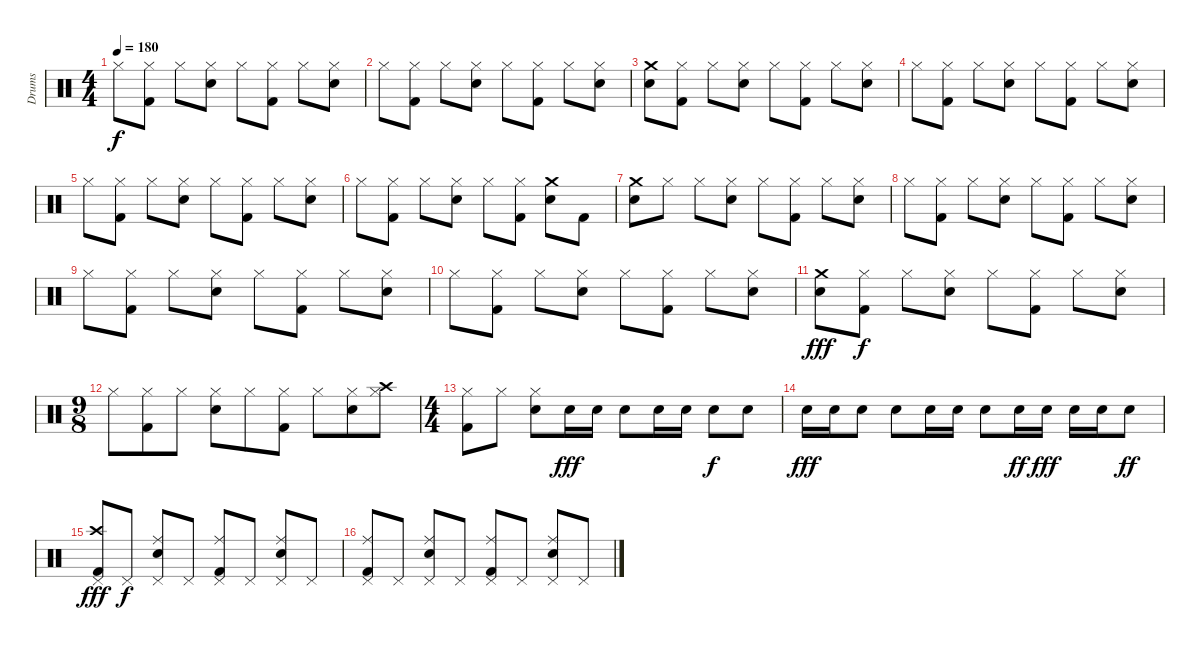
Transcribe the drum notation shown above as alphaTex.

\track ("Drums" "Drums") {instrument percussion}
\staff {score}
\articulation defaults
\ts (4 4)
\tempo 180
\clef neutral
\ks c "Hi-Hat (closed)".8{dy f}
("Hi-Hat (closed)" "Kick (hit) 2").8 "Hi-Hat (closed)".8 ("Hi-Hat (closed)" "Electric Snare (hit)").8 "Hi-Hat (closed)".8 ("Hi-Hat (closed)" "Kick (hit) 2").8 "Hi-Hat (closed)".8 ("Hi-Hat (closed)" "Electric Snare (hit)").8 |
"Hi-Hat (closed)".8 ("Hi-Hat (closed)" "Kick (hit) 2").8 "Hi-Hat (closed)".8 ("Hi-Hat (closed)" "Electric Snare (hit)").8 "Hi-Hat (closed)".8 ("Hi-Hat (closed)" "Kick (hit) 2").8 "Hi-Hat (closed)".8 ("Hi-Hat (closed)" "Electric Snare (hit)").8 |
("Crash medium (hit)" "Electric Snare (hit)").8 ("Hi-Hat (closed)" "Kick (hit) 2").8 "Hi-Hat (closed)".8 ("Hi-Hat (closed)" "Electric Snare (hit)").8 "Hi-Hat (closed)".8 ("Hi-Hat (closed)" "Kick (hit) 2").8 "Hi-Hat (closed)".8 ("Hi-Hat (closed)" "Electric Snare (hit)").8 |
"Hi-Hat (closed)".8 ("Hi-Hat (closed)" "Kick (hit) 2").8 "Hi-Hat (closed)".8 ("Hi-Hat (closed)" "Electric Snare (hit)").8 "Hi-Hat (closed)".8 ("Hi-Hat (closed)" "Kick (hit) 2").8 "Hi-Hat (closed)".8 ("Hi-Hat (closed)" "Electric Snare (hit)").8 |
"Hi-Hat (closed)".8 ("Hi-Hat (closed)" "Kick (hit) 2").8 "Hi-Hat (closed)".8 ("Hi-Hat (closed)" "Electric Snare (hit)").8 "Hi-Hat (closed)".8 ("Hi-Hat (closed)" "Kick (hit) 2").8 "Hi-Hat (closed)".8 ("Hi-Hat (closed)" "Electric Snare (hit)").8 |
"Hi-Hat (closed)".8 ("Hi-Hat (closed)" "Kick (hit) 2").8 "Hi-Hat (closed)".8 ("Hi-Hat (closed)" "Electric Snare (hit)").8 "Hi-Hat (closed)".8 ("Hi-Hat (closed)" "Kick (hit) 2").8 ("Crash medium (hit)" "Snare (hit) 2").8 "Kick (hit) 2".8 |
("Crash medium (hit)" "Snare (hit) 2").8 "Hi-Hat (closed)".8 "Hi-Hat (closed)".8 ("Hi-Hat (closed)" "Electric Snare (hit)").8 "Hi-Hat (closed)".8 ("Hi-Hat (closed)" "Kick (hit) 2").8 "Hi-Hat (closed)".8 ("Hi-Hat (closed)" "Electric Snare (hit)").8 |
"Hi-Hat (closed)".8 ("Hi-Hat (closed)" "Kick (hit) 2").8 "Hi-Hat (closed)".8 ("Hi-Hat (closed)" "Electric Snare (hit)").8 "Hi-Hat (closed)".8 ("Hi-Hat (closed)" "Kick (hit) 2").8 "Hi-Hat (closed)".8 ("Hi-Hat (closed)" "Electric Snare (hit)").8 |
"Hi-Hat (closed)".8 ("Hi-Hat (closed)" "Kick (hit) 2").8 "Hi-Hat (closed)".8 ("Hi-Hat (closed)" "Electric Snare (hit)").8 "Hi-Hat (closed)".8 ("Hi-Hat (closed)" "Kick (hit) 2").8 "Hi-Hat (closed)".8 ("Hi-Hat (closed)" "Electric Snare (hit)").8 |
"Hi-Hat (closed)".8 ("Hi-Hat (closed)" "Kick (hit) 2").8 "Hi-Hat (closed)".8 ("Hi-Hat (closed)" "Electric Snare (hit)").8 "Hi-Hat (closed)".8 ("Hi-Hat (closed)" "Kick (hit) 2").8 "Hi-Hat (closed)".8 ("Hi-Hat (closed)" "Electric Snare (hit)").8 |
("Crash medium (hit)" "Electric Snare (hit)").8{dy fff} ("Hi-Hat (closed)" "Kick (hit) 2").8{dy f} "Hi-Hat (closed)".8 ("Hi-Hat (closed)" "Electric Snare (hit)").8 "Hi-Hat (closed)".8 ("Hi-Hat (closed)" "Kick (hit) 2").8 "Hi-Hat (closed)".8 ("Hi-Hat (closed)" "Electric Snare (hit)").8 |
\ts (9 8)
"Hi-Hat (closed)".8 ("Hi-Hat (closed)" "Kick (hit) 2").8 "Hi-Hat (closed)".8 ("Hi-Hat (closed)" "Electric Snare (hit)").8 "Hi-Hat (closed)".8 ("Hi-Hat (closed)" "Kick (hit) 2").8 "Hi-Hat (closed)".8 ("Hi-Hat (closed)" "Electric Snare (hit)").8 ("Crash high (hit)" "Hi-Hat (closed)").8 |
\ts (4 4)
("Hi-Hat (closed)" "Kick (hit) 2").8 "Hi-Hat (closed)".8 ("Hi-Hat (closed)" "Electric Snare (hit)").8 "Electric Snare (hit)".16{dy fff} "Electric Snare (hit)".16 "Electric Snare (hit)".8 "Electric Snare (hit)".16 "Electric Snare (hit)".16 "Electric Snare (hit)".8{dy f} "Electric Snare (hit)".8 |
"Electric Snare (hit)".16{dy fff} "Electric Snare (hit)".16 "Electric Snare (hit)".8 "Electric Snare (hit)".8 "Electric Snare (hit)".16 "Electric Snare (hit)".16 "Electric Snare (hit)".8 "Electric Snare (hit)".16{dy ff} "Electric Snare (hit)".16{dy fff} "Electric Snare (hit)".16 "Electric Snare (hit)".16 "Electric Snare (hit)".8{dy ff} |
("Crash high (hit)" "Pedal Hi-Hat (hit)" "Kick (hit) 2").8{dy fff} "Pedal Hi-Hat (hit)".8{dy f} ("Ride (middle)" "Pedal Hi-Hat (hit)" "Electric Snare (hit)").8 "Pedal Hi-Hat (hit)".8 ("Ride (middle)" "Pedal Hi-Hat (hit)" "Kick (hit) 2").8 "Pedal Hi-Hat (hit)".8 ("Ride (middle)" "Pedal Hi-Hat (hit)" "Electric Snare (hit)").8 "Pedal Hi-Hat (hit)".8 |
("Ride (middle)" "Pedal Hi-Hat (hit)" "Kick (hit) 2").8 "Pedal Hi-Hat (hit)".8 ("Ride (middle)" "Pedal Hi-Hat (hit)" "Electric Snare (hit)").8 "Pedal Hi-Hat (hit)".8 ("Ride (middle)" "Pedal Hi-Hat (hit)" "Kick (hit) 2").8 "Pedal Hi-Hat (hit)".8 ("Ride (middle)" "Pedal Hi-Hat (hit)" "Electric Snare (hit)").8 "Pedal Hi-Hat (hit)".8
